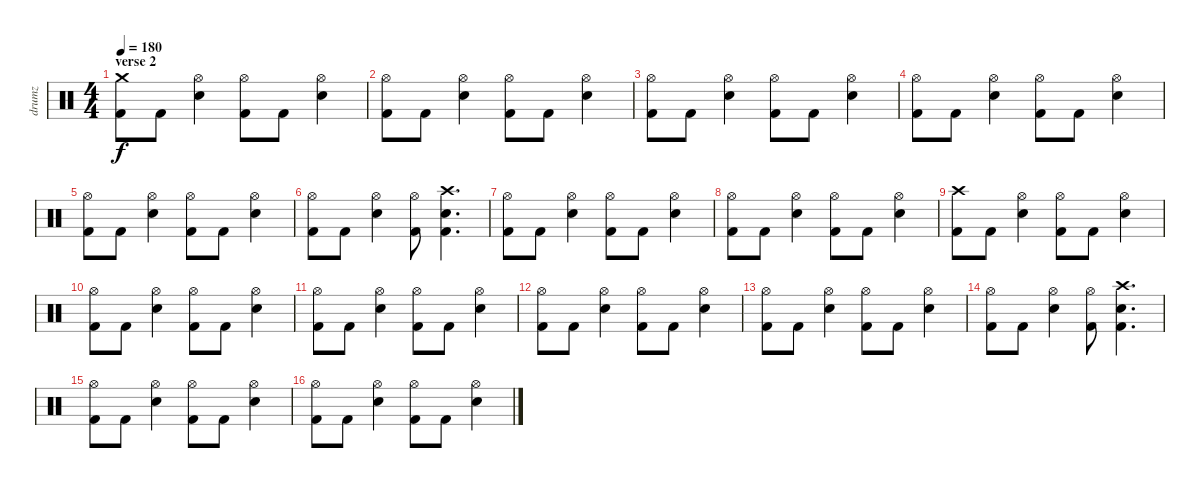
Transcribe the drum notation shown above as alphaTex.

\track ("drumz" "drumz") {instrument percussion}
\staff {score}
\articulation defaults
\ts (4 4)
\section ("" "verse 2")
\tempo 180
\clef neutral
\ks c
("Crash medium (hit)" "Kick (hit) 2").8{dy f} "Kick (hit) 2".8 ("Hi-Hat (open)" "Electric Snare (hit)").4 ("Hi-Hat (open)" "Kick (hit) 2").8 "Kick (hit) 2".8 ("Hi-Hat (open)" "Electric Snare (hit)").4 |
("Hi-Hat (open)" "Kick (hit) 2").8 "Kick (hit) 2".8 ("Hi-Hat (open)" "Electric Snare (hit)").4 ("Hi-Hat (open)" "Kick (hit) 2").8 "Kick (hit) 2".8 ("Hi-Hat (open)" "Electric Snare (hit)").4 |
("Hi-Hat (open)" "Kick (hit) 2").8 "Kick (hit) 2".8 ("Hi-Hat (open)" "Electric Snare (hit)").4 ("Hi-Hat (open)" "Kick (hit) 2").8 "Kick (hit) 2".8 ("Hi-Hat (open)" "Electric Snare (hit)").4 |
("Hi-Hat (open)" "Kick (hit) 2").8 "Kick (hit) 2".8 ("Hi-Hat (open)" "Electric Snare (hit)").4 ("Hi-Hat (open)" "Kick (hit) 2").8 "Kick (hit) 2".8 ("Hi-Hat (open)" "Electric Snare (hit)").4 |
("Hi-Hat (open)" "Kick (hit) 2").8 "Kick (hit) 2".8 ("Hi-Hat (open)" "Electric Snare (hit)").4 ("Hi-Hat (open)" "Kick (hit) 2").8 "Kick (hit) 2".8 ("Hi-Hat (open)" "Electric Snare (hit)").4 |
("Hi-Hat (open)" "Kick (hit) 2").8 "Kick (hit) 2".8 ("Hi-Hat (open)" "Electric Snare (hit)").4 ("Hi-Hat (open)" "Kick (hit) 2").8 ("Crash high (hit)" "Electric Snare (hit)" "Kick (hit) 2").4{d} |
("Hi-Hat (open)" "Kick (hit) 2").8 "Kick (hit) 2".8 ("Hi-Hat (open)" "Electric Snare (hit)").4 ("Hi-Hat (open)" "Kick (hit) 2").8 "Kick (hit) 2".8 ("Hi-Hat (open)" "Electric Snare (hit)").4 |
("Hi-Hat (open)" "Kick (hit) 2").8 "Kick (hit) 2".8 ("Hi-Hat (open)" "Electric Snare (hit)").4 ("Hi-Hat (open)" "Kick (hit) 2").8 "Kick (hit) 2".8 ("Hi-Hat (open)" "Electric Snare (hit)").4 |
("Crash high (hit)" "Kick (hit) 2").8 "Kick (hit) 2".8 ("Hi-Hat (open)" "Electric Snare (hit)").4 ("Hi-Hat (open)" "Kick (hit) 2").8 "Kick (hit) 2".8 ("Hi-Hat (open)" "Electric Snare (hit)").4 |
("Hi-Hat (open)" "Kick (hit) 2").8 "Kick (hit) 2".8 ("Hi-Hat (open)" "Electric Snare (hit)").4 ("Hi-Hat (open)" "Kick (hit) 2").8 "Kick (hit) 2".8 ("Hi-Hat (open)" "Electric Snare (hit)").4 |
("Hi-Hat (open)" "Kick (hit) 2").8 "Kick (hit) 2".8 ("Hi-Hat (open)" "Electric Snare (hit)").4 ("Hi-Hat (open)" "Kick (hit) 2").8 "Kick (hit) 2".8 ("Hi-Hat (open)" "Electric Snare (hit)").4 |
("Hi-Hat (open)" "Kick (hit) 2").8 "Kick (hit) 2".8 ("Hi-Hat (open)" "Electric Snare (hit)").4 ("Hi-Hat (open)" "Kick (hit) 2").8 "Kick (hit) 2".8 ("Hi-Hat (open)" "Electric Snare (hit)").4 |
("Hi-Hat (open)" "Kick (hit) 2").8 "Kick (hit) 2".8 ("Hi-Hat (open)" "Electric Snare (hit)").4 ("Hi-Hat (open)" "Kick (hit) 2").8 "Kick (hit) 2".8 ("Hi-Hat (open)" "Electric Snare (hit)").4 |
("Hi-Hat (open)" "Kick (hit) 2").8 "Kick (hit) 2".8 ("Hi-Hat (open)" "Electric Snare (hit)").4 ("Hi-Hat (open)" "Kick (hit) 2").8 ("Crash high (hit)" "Electric Snare (hit)" "Kick (hit) 2").4{d} |
("Hi-Hat (open)" "Kick (hit) 2").8 "Kick (hit) 2".8 ("Hi-Hat (open)" "Electric Snare (hit)").4 ("Hi-Hat (open)" "Kick (hit) 2").8 "Kick (hit) 2".8 ("Hi-Hat (open)" "Electric Snare (hit)").4 |
("Hi-Hat (open)" "Kick (hit) 2").8 "Kick (hit) 2".8 ("Hi-Hat (open)" "Electric Snare (hit)").4 ("Hi-Hat (open)" "Kick (hit) 2").8 "Kick (hit) 2".8 ("Hi-Hat (open)" "Electric Snare (hit)").4
